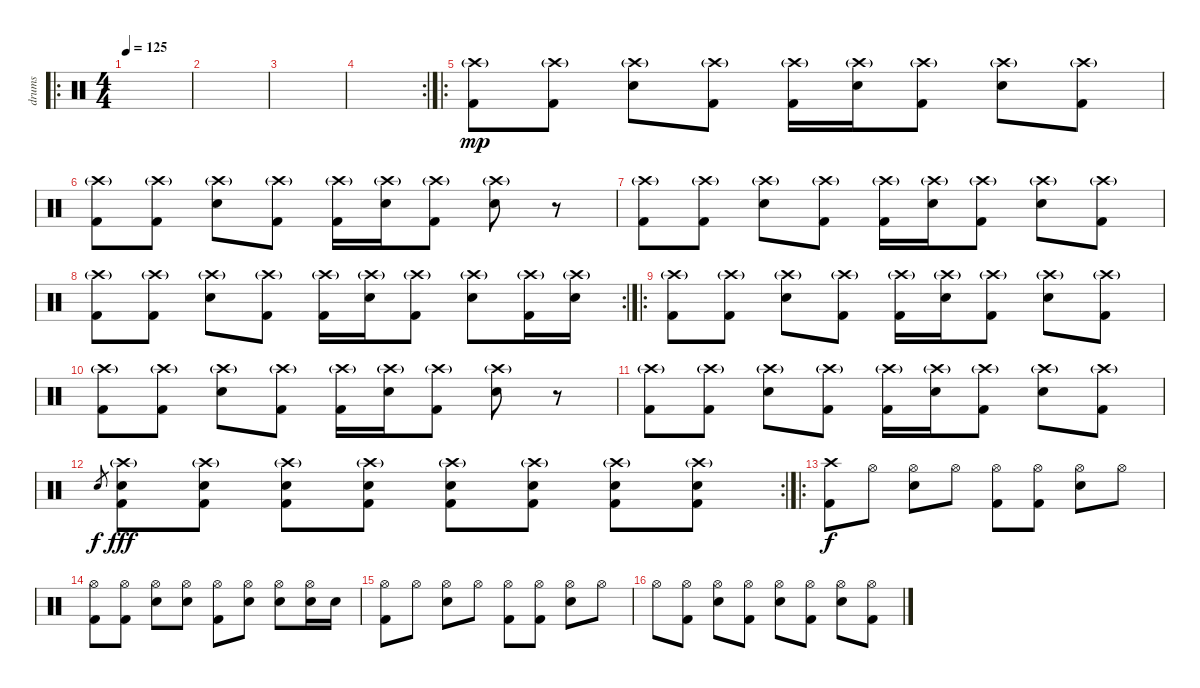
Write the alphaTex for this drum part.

\track ("drums" "drums") {instrument percussion}
\staff {score}
\articulation defaults
\ro
\ts (4 4)
\tempo 125
\clef neutral
\ks c
|
|
|
\rc 2
|
\ro
("Crash high (hit)"{g} "Kick (hit) 2").8{dy mp} ("Crash high (hit)"{g} "Kick (hit) 2").8 ("Crash high (hit)"{g} "Electric Snare (hit)").8 ("Crash high (hit)"{g} "Kick (hit) 2").8 ("Crash high (hit)"{g} "Kick (hit) 2").16 ("Crash high (hit)"{g} "Electric Snare (hit)").16 ("Crash high (hit)"{g} "Kick (hit) 2").8 ("Crash high (hit)"{g} "Electric Snare (hit)").8 ("Crash high (hit)"{g} "Kick (hit) 2").8 |
("Crash high (hit)"{g} "Kick (hit) 2").8 ("Crash high (hit)"{g} "Kick (hit) 2").8 ("Crash high (hit)"{g} "Electric Snare (hit)").8 ("Crash high (hit)"{g} "Kick (hit) 2").8 ("Crash high (hit)"{g} "Kick (hit) 2").16 ("Crash high (hit)"{g} "Electric Snare (hit)").16 ("Crash high (hit)"{g} "Kick (hit) 2").8 ("Crash high (hit)"{g} "Electric Snare (hit)").8 r.8 |
("Crash high (hit)"{g} "Kick (hit) 2").8 ("Crash high (hit)"{g} "Kick (hit) 2").8 ("Crash high (hit)"{g} "Electric Snare (hit)").8 ("Crash high (hit)"{g} "Kick (hit) 2").8 ("Crash high (hit)"{g} "Kick (hit) 2").16 ("Crash high (hit)"{g} "Electric Snare (hit)").16 ("Crash high (hit)"{g} "Kick (hit) 2").8 ("Crash high (hit)"{g} "Electric Snare (hit)").8 ("Crash high (hit)"{g} "Kick (hit) 2").8 |
\rc 2
("Crash high (hit)"{g} "Kick (hit) 2").8 ("Crash high (hit)"{g} "Kick (hit) 2").8 ("Crash high (hit)"{g} "Electric Snare (hit)").8 ("Crash high (hit)"{g} "Kick (hit) 2").8 ("Crash high (hit)"{g} "Kick (hit) 2").16 ("Crash high (hit)"{g} "Electric Snare (hit)").16 ("Crash high (hit)"{g} "Kick (hit) 2").8 ("Crash high (hit)"{g} "Electric Snare (hit)").8 ("Crash high (hit)"{g} "Kick (hit) 2").16 ("Crash high (hit)"{g} "Electric Snare (hit)").16 |
\ro
("Crash high (hit)"{g} "Kick (hit) 2").8 ("Crash high (hit)"{g} "Kick (hit) 2").8 ("Crash high (hit)"{g} "Electric Snare (hit)").8 ("Crash high (hit)"{g} "Kick (hit) 2").8 ("Crash high (hit)"{g} "Kick (hit) 2").16 ("Crash high (hit)"{g} "Electric Snare (hit)").16 ("Crash high (hit)"{g} "Kick (hit) 2").8 ("Crash high (hit)"{g} "Electric Snare (hit)").8 ("Crash high (hit)"{g} "Kick (hit) 2").8 |
("Crash high (hit)"{g} "Kick (hit) 2").8 ("Crash high (hit)"{g} "Kick (hit) 2").8 ("Crash high (hit)"{g} "Electric Snare (hit)").8 ("Crash high (hit)"{g} "Kick (hit) 2").8 ("Crash high (hit)"{g} "Kick (hit) 2").16 ("Crash high (hit)"{g} "Electric Snare (hit)").16 ("Crash high (hit)"{g} "Kick (hit) 2").8 ("Crash high (hit)"{g} "Electric Snare (hit)").8 r.8 |
("Crash high (hit)"{g} "Kick (hit) 2").8 ("Crash high (hit)"{g} "Kick (hit) 2").8 ("Crash high (hit)"{g} "Electric Snare (hit)").8 ("Crash high (hit)"{g} "Kick (hit) 2").8 ("Crash high (hit)"{g} "Kick (hit) 2").16 ("Crash high (hit)"{g} "Electric Snare (hit)").16 ("Crash high (hit)"{g} "Kick (hit) 2").8 ("Crash high (hit)"{g} "Electric Snare (hit)").8 ("Crash high (hit)"{g} "Kick (hit) 2").8 |
\rc 2 "Electric Snare (hit)".8{gr dy f}
("Crash high (hit)"{g} "Kick (hit) 2" "Electric Snare (hit)").8{dy fff} ("Crash high (hit)"{g} "Kick (hit) 2" "Electric Snare (hit)").8 ("Crash high (hit)"{g} "Kick (hit) 2" "Electric Snare (hit)").8 ("Crash high (hit)"{g} "Kick (hit) 2" "Electric Snare (hit)").8 ("Crash high (hit)"{g} "Kick (hit) 2" "Electric Snare (hit)").8 ("Crash high (hit)"{g} "Kick (hit) 2" "Electric Snare (hit)").8 ("Crash high (hit)"{g} "Kick (hit) 2" "Electric Snare (hit)").8 ("Crash high (hit)"{g} "Kick (hit) 2" "Electric Snare (hit)").8 |
\ro
("Crash high (hit)" "Kick (hit) 2").8{dy f} "Hi-Hat (open)".8 ("Hi-Hat (open)" "Electric Snare (hit)").8 "Hi-Hat (open)".8 ("Hi-Hat (open)" "Kick (hit) 2").8 ("Hi-Hat (open)" "Kick (hit) 2").8 ("Hi-Hat (open)" "Electric Snare (hit)").8 "Hi-Hat (open)".8 |
("Hi-Hat (open)" "Kick (hit) 2").8 ("Hi-Hat (open)" "Kick (hit) 2").8 ("Hi-Hat (open)" "Electric Snare (hit)").8 ("Hi-Hat (open)" "Electric Snare (hit)").8 ("Hi-Hat (open)" "Kick (hit) 2").8 ("Hi-Hat (open)" "Electric Snare (hit)").8 ("Hi-Hat (open)" "Electric Snare (hit)").8 ("Hi-Hat (open)" "Electric Snare (hit)").16 "Electric Snare (hit)".16 |
("Hi-Hat (open)" "Kick (hit) 2").8 "Hi-Hat (open)".8 ("Hi-Hat (open)" "Electric Snare (hit)").8 "Hi-Hat (open)".8 ("Hi-Hat (open)" "Kick (hit) 2").8 ("Hi-Hat (open)" "Kick (hit) 2").8 ("Hi-Hat (open)" "Electric Snare (hit)").8 "Hi-Hat (open)".8 |
"Hi-Hat (open)".8 ("Hi-Hat (open)" "Kick (hit) 2").8 ("Hi-Hat (open)" "Electric Snare (hit)").8 ("Hi-Hat (open)" "Kick (hit) 2").8 ("Hi-Hat (open)" "Electric Snare (hit)").8 ("Hi-Hat (open)" "Kick (hit) 2").8 ("Hi-Hat (open)" "Electric Snare (hit)").8 ("Hi-Hat (open)" "Kick (hit) 2").8
